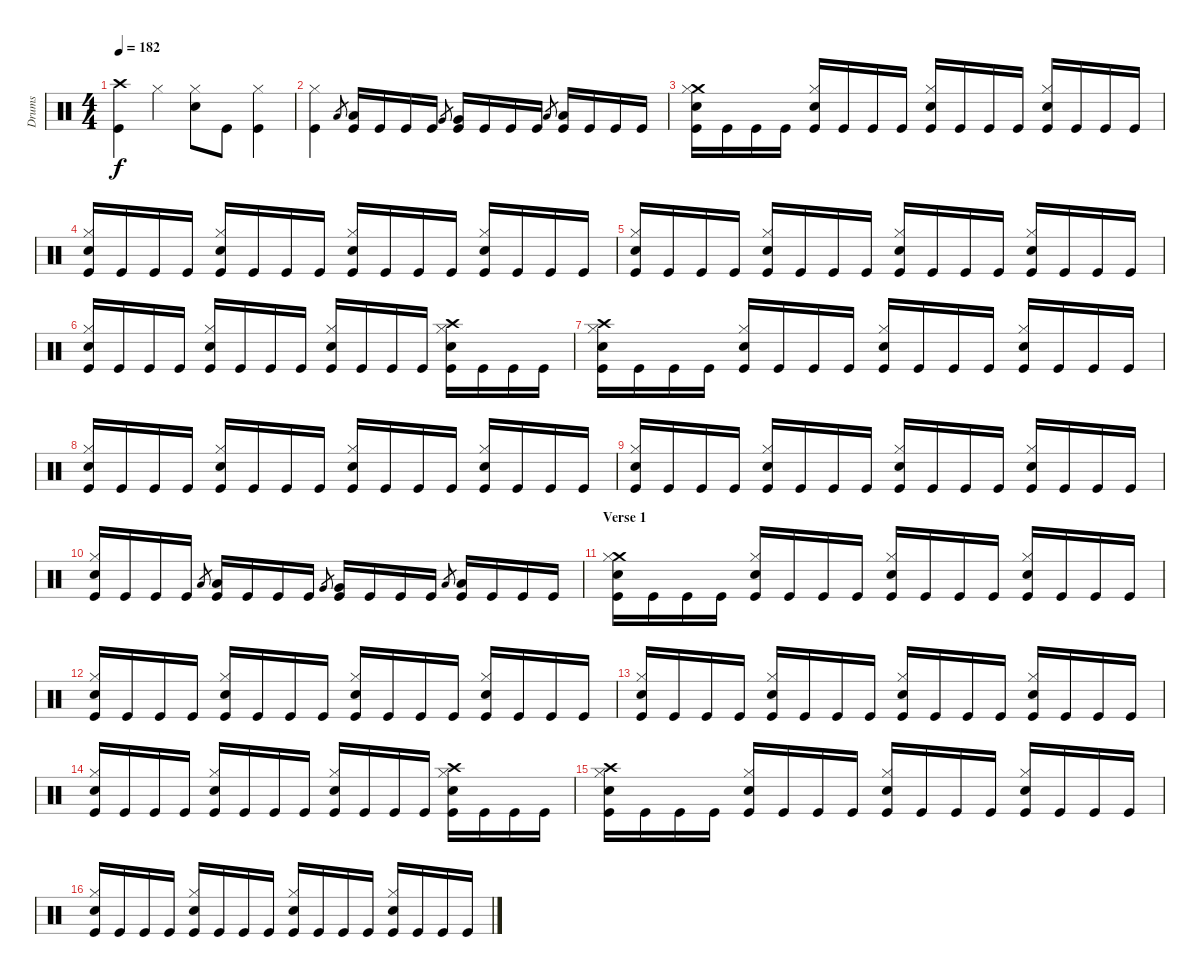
\track ("Drums" "Drums") {instrument percussion}
\staff {score}
\articulation defaults
\ts (4 4)
\tempo 182
\clef neutral
\ks c
("Crash high (hit)" "Kick (hit)").4{dy f} "Hi-Hat (closed)".4 ("Hi-Hat (closed)" "Snare (hit) 2").8 "Kick (hit)".8 ("Hi-Hat (closed)" "Kick (hit)").4 |
("Hi-Hat (closed)" "Kick (hit)").4 "Low Tom (hit)".8{gr} ("Low Tom (hit)" "Kick (hit)").16 "Kick (hit)".16 "Kick (hit)".16 "Kick (hit)".16 "Very Low Tom (hit)".8{gr} ("Very Low Tom (hit)" "Kick (hit)").16 "Kick (hit)".16 "Kick (hit)".16 "Kick (hit)".16 "Low Floor Tom (hit)".8{gr} ("Low Floor Tom (hit)" "Kick (hit)").16 "Kick (hit)".16 "Kick (hit)".16 "Kick (hit)".16 |
("Crash medium (hit)" "Hi-Hat (closed)" "Snare (hit) 2" "Kick (hit)").16 "Kick (hit)".16 "Kick (hit)".16 "Kick (hit)".16 ("Hi-Hat (closed)" "Snare (hit) 2" "Kick (hit)").16 "Kick (hit)".16 "Kick (hit)".16 "Kick (hit)".16 ("Hi-Hat (closed)" "Snare (hit) 2" "Kick (hit)").16 "Kick (hit)".16 "Kick (hit)".16 "Kick (hit)".16 ("Hi-Hat (closed)" "Snare (hit) 2" "Kick (hit)").16 "Kick (hit)".16 "Kick (hit)".16 "Kick (hit)".16 |
("Hi-Hat (closed)" "Snare (hit) 2" "Kick (hit)").16 "Kick (hit)".16 "Kick (hit)".16 "Kick (hit)".16 ("Hi-Hat (closed)" "Snare (hit) 2" "Kick (hit)").16 "Kick (hit)".16 "Kick (hit)".16 "Kick (hit)".16 ("Hi-Hat (closed)" "Snare (hit) 2" "Kick (hit)").16 "Kick (hit)".16 "Kick (hit)".16 "Kick (hit)".16 ("Hi-Hat (closed)" "Snare (hit) 2" "Kick (hit)").16 "Kick (hit)".16 "Kick (hit)".16 "Kick (hit)".16 |
("Hi-Hat (closed)" "Snare (hit) 2" "Kick (hit)").16 "Kick (hit)".16 "Kick (hit)".16 "Kick (hit)".16 ("Hi-Hat (closed)" "Snare (hit) 2" "Kick (hit)").16 "Kick (hit)".16 "Kick (hit)".16 "Kick (hit)".16 ("Hi-Hat (closed)" "Snare (hit) 2" "Kick (hit)").16 "Kick (hit)".16 "Kick (hit)".16 "Kick (hit)".16 ("Hi-Hat (closed)" "Snare (hit) 2" "Kick (hit)").16 "Kick (hit)".16 "Kick (hit)".16 "Kick (hit)".16 |
("Hi-Hat (closed)" "Snare (hit) 2" "Kick (hit)").16 "Kick (hit)".16 "Kick (hit)".16 "Kick (hit)".16 ("Hi-Hat (closed)" "Snare (hit) 2" "Kick (hit)").16 "Kick (hit)".16 "Kick (hit)".16 "Kick (hit)".16 ("Hi-Hat (closed)" "Snare (hit) 2" "Kick (hit)").16 "Kick (hit)".16 "Kick (hit)".16 "Kick (hit)".16 ("Crash high (hit)" "Hi-Hat (closed)" "Snare (hit) 2" "Kick (hit)").16 "Kick (hit)".16 "Kick (hit)".16 "Kick (hit)".16 |
("Crash high (hit)" "Hi-Hat (closed)" "Snare (hit) 2" "Kick (hit)").16 "Kick (hit)".16 "Kick (hit)".16 "Kick (hit)".16 ("Hi-Hat (closed)" "Snare (hit) 2" "Kick (hit)").16 "Kick (hit)".16 "Kick (hit)".16 "Kick (hit)".16 ("Hi-Hat (closed)" "Snare (hit) 2" "Kick (hit)").16 "Kick (hit)".16 "Kick (hit)".16 "Kick (hit)".16 ("Hi-Hat (closed)" "Snare (hit) 2" "Kick (hit)").16 "Kick (hit)".16 "Kick (hit)".16 "Kick (hit)".16 |
("Hi-Hat (closed)" "Snare (hit) 2" "Kick (hit)").16 "Kick (hit)".16 "Kick (hit)".16 "Kick (hit)".16 ("Hi-Hat (closed)" "Snare (hit) 2" "Kick (hit)").16 "Kick (hit)".16 "Kick (hit)".16 "Kick (hit)".16 ("Hi-Hat (closed)" "Snare (hit) 2" "Kick (hit)").16 "Kick (hit)".16 "Kick (hit)".16 "Kick (hit)".16 ("Hi-Hat (closed)" "Snare (hit) 2" "Kick (hit)").16 "Kick (hit)".16 "Kick (hit)".16 "Kick (hit)".16 |
("Hi-Hat (closed)" "Snare (hit) 2" "Kick (hit)").16 "Kick (hit)".16 "Kick (hit)".16 "Kick (hit)".16 ("Hi-Hat (closed)" "Snare (hit) 2" "Kick (hit)").16 "Kick (hit)".16 "Kick (hit)".16 "Kick (hit)".16 ("Hi-Hat (closed)" "Snare (hit) 2" "Kick (hit)").16 "Kick (hit)".16 "Kick (hit)".16 "Kick (hit)".16 ("Hi-Hat (closed)" "Snare (hit) 2" "Kick (hit)").16 "Kick (hit)".16 "Kick (hit)".16 "Kick (hit)".16 |
("Hi-Hat (closed)" "Snare (hit) 2" "Kick (hit)").16 "Kick (hit)".16 "Kick (hit)".16 "Kick (hit)".16 "Low Tom (hit)".8{gr} ("Low Tom (hit)" "Kick (hit)").16 "Kick (hit)".16 "Kick (hit)".16 "Kick (hit)".16 "Very Low Tom (hit)".8{gr} ("Very Low Tom (hit)" "Kick (hit)").16 "Kick (hit)".16 "Kick (hit)".16 "Kick (hit)".16 "Low Floor Tom (hit)".8{gr} ("Low Floor Tom (hit)" "Kick (hit)").16 "Kick (hit)".16 "Kick (hit)".16 "Kick (hit)".16 |
\section ("" "Verse 1")
("Crash medium (hit)" "Hi-Hat (closed)" "Snare (hit) 2" "Kick (hit)").16 "Kick (hit)".16 "Kick (hit)".16 "Kick (hit)".16 ("Hi-Hat (closed)" "Snare (hit) 2" "Kick (hit)").16 "Kick (hit)".16 "Kick (hit)".16 "Kick (hit)".16 ("Hi-Hat (closed)" "Snare (hit) 2" "Kick (hit)").16 "Kick (hit)".16 "Kick (hit)".16 "Kick (hit)".16 ("Hi-Hat (closed)" "Snare (hit) 2" "Kick (hit)").16 "Kick (hit)".16 "Kick (hit)".16 "Kick (hit)".16 |
("Hi-Hat (closed)" "Snare (hit) 2" "Kick (hit)").16 "Kick (hit)".16 "Kick (hit)".16 "Kick (hit)".16 ("Hi-Hat (closed)" "Snare (hit) 2" "Kick (hit)").16 "Kick (hit)".16 "Kick (hit)".16 "Kick (hit)".16 ("Hi-Hat (closed)" "Snare (hit) 2" "Kick (hit)").16 "Kick (hit)".16 "Kick (hit)".16 "Kick (hit)".16 ("Hi-Hat (closed)" "Snare (hit) 2" "Kick (hit)").16 "Kick (hit)".16 "Kick (hit)".16 "Kick (hit)".16 |
("Hi-Hat (closed)" "Snare (hit) 2" "Kick (hit)").16 "Kick (hit)".16 "Kick (hit)".16 "Kick (hit)".16 ("Hi-Hat (closed)" "Snare (hit) 2" "Kick (hit)").16 "Kick (hit)".16 "Kick (hit)".16 "Kick (hit)".16 ("Hi-Hat (closed)" "Snare (hit) 2" "Kick (hit)").16 "Kick (hit)".16 "Kick (hit)".16 "Kick (hit)".16 ("Hi-Hat (closed)" "Snare (hit) 2" "Kick (hit)").16 "Kick (hit)".16 "Kick (hit)".16 "Kick (hit)".16 |
("Hi-Hat (closed)" "Snare (hit) 2" "Kick (hit)").16 "Kick (hit)".16 "Kick (hit)".16 "Kick (hit)".16 ("Hi-Hat (closed)" "Snare (hit) 2" "Kick (hit)").16 "Kick (hit)".16 "Kick (hit)".16 "Kick (hit)".16 ("Hi-Hat (closed)" "Snare (hit) 2" "Kick (hit)").16 "Kick (hit)".16 "Kick (hit)".16 "Kick (hit)".16 ("Crash high (hit)" "Hi-Hat (closed)" "Snare (hit) 2" "Kick (hit)").16 "Kick (hit)".16 "Kick (hit)".16 "Kick (hit)".16 |
("Crash high (hit)" "Hi-Hat (closed)" "Snare (hit) 2" "Kick (hit)").16 "Kick (hit)".16 "Kick (hit)".16 "Kick (hit)".16 ("Hi-Hat (closed)" "Snare (hit) 2" "Kick (hit)").16 "Kick (hit)".16 "Kick (hit)".16 "Kick (hit)".16 ("Hi-Hat (closed)" "Snare (hit) 2" "Kick (hit)").16 "Kick (hit)".16 "Kick (hit)".16 "Kick (hit)".16 ("Hi-Hat (closed)" "Snare (hit) 2" "Kick (hit)").16 "Kick (hit)".16 "Kick (hit)".16 "Kick (hit)".16 |
("Hi-Hat (closed)" "Snare (hit) 2" "Kick (hit)").16 "Kick (hit)".16 "Kick (hit)".16 "Kick (hit)".16 ("Hi-Hat (closed)" "Snare (hit) 2" "Kick (hit)").16 "Kick (hit)".16 "Kick (hit)".16 "Kick (hit)".16 ("Hi-Hat (closed)" "Snare (hit) 2" "Kick (hit)").16 "Kick (hit)".16 "Kick (hit)".16 "Kick (hit)".16 ("Hi-Hat (closed)" "Snare (hit) 2" "Kick (hit)").16 "Kick (hit)".16 "Kick (hit)".16 "Kick (hit)".16
